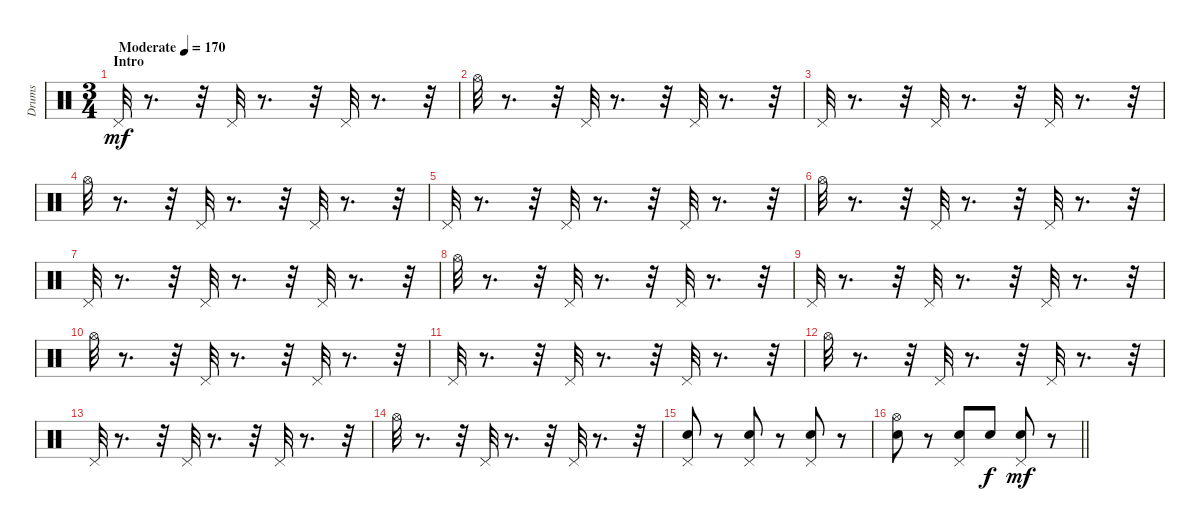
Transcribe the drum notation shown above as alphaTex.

\track ("Drums" "Drums") {instrument percussion}
\staff {score}
\articulation defaults
\ts (3 4)
\section ("" "Intro")
\tempo (170 "Moderate")
\clef neutral
\ks c "Pedal Hi-Hat (hit)".32{dy mf}
r.8{d} r.32 "Pedal Hi-Hat (hit)".32 r.8{d} r.32 "Pedal Hi-Hat (hit)".32 r.8{d} r.32 |
"Hi-Hat (open)".32 r.8{d} r.32 "Pedal Hi-Hat (hit)".32 r.8{d} r.32 "Pedal Hi-Hat (hit)".32 r.8{d} r.32 |
"Pedal Hi-Hat (hit)".32 r.8{d} r.32 "Pedal Hi-Hat (hit)".32 r.8{d} r.32 "Pedal Hi-Hat (hit)".32 r.8{d} r.32 |
"Hi-Hat (open)".32 r.8{d} r.32 "Pedal Hi-Hat (hit)".32 r.8{d} r.32 "Pedal Hi-Hat (hit)".32 r.8{d} r.32 |
"Pedal Hi-Hat (hit)".32 r.8{d} r.32 "Pedal Hi-Hat (hit)".32 r.8{d} r.32 "Pedal Hi-Hat (hit)".32 r.8{d} r.32 |
"Hi-Hat (open)".32 r.8{d} r.32 "Pedal Hi-Hat (hit)".32 r.8{d} r.32 "Pedal Hi-Hat (hit)".32 r.8{d} r.32 |
"Pedal Hi-Hat (hit)".32 r.8{d} r.32 "Pedal Hi-Hat (hit)".32 r.8{d} r.32 "Pedal Hi-Hat (hit)".32 r.8{d} r.32 |
"Hi-Hat (open)".32 r.8{d} r.32 "Pedal Hi-Hat (hit)".32 r.8{d} r.32 "Pedal Hi-Hat (hit)".32 r.8{d} r.32 |
"Pedal Hi-Hat (hit)".32 r.8{d} r.32 "Pedal Hi-Hat (hit)".32 r.8{d} r.32 "Pedal Hi-Hat (hit)".32 r.8{d} r.32 |
"Hi-Hat (open)".32 r.8{d} r.32 "Pedal Hi-Hat (hit)".32 r.8{d} r.32 "Pedal Hi-Hat (hit)".32 r.8{d} r.32 |
"Pedal Hi-Hat (hit)".32 r.8{d} r.32 "Pedal Hi-Hat (hit)".32 r.8{d} r.32 "Pedal Hi-Hat (hit)".32 r.8{d} r.32 |
"Hi-Hat (open)".32 r.8{d} r.32 "Pedal Hi-Hat (hit)".32 r.8{d} r.32 "Pedal Hi-Hat (hit)".32 r.8{d} r.32 |
"Pedal Hi-Hat (hit)".32 r.8{d} r.32 "Pedal Hi-Hat (hit)".32 r.8{d} r.32 "Pedal Hi-Hat (hit)".32 r.8{d} r.32 |
"Hi-Hat (open)".32 r.8{d} r.32 "Pedal Hi-Hat (hit)".32 r.8{d} r.32 "Pedal Hi-Hat (hit)".32 r.8{d} r.32 |
("Snare (hit) 2" "Pedal Hi-Hat (hit)").8 r.8 ("Snare (hit) 2" "Pedal Hi-Hat (hit)").8 r.8 ("Snare (hit) 2" "Pedal Hi-Hat (hit)").8 r.8 |
\barLineRight lightlight
("Snare (hit) 2" "Hi-Hat (open)").8 r.8 ("Snare (hit) 2" "Pedal Hi-Hat (hit)").8 "Snare (hit) 2".8{dy f} ("Snare (hit) 2" "Pedal Hi-Hat (hit)").8{dy mf} r.8
